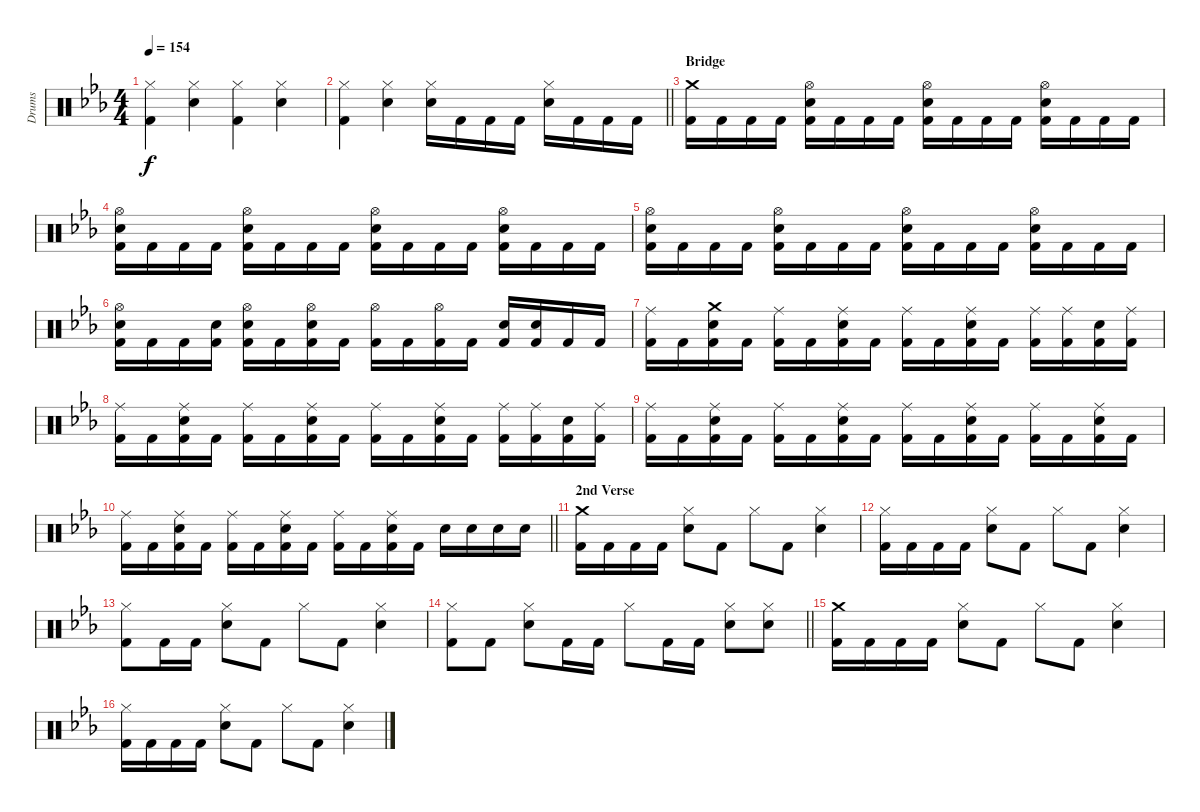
\track ("Drums" "Drums") {instrument percussion}
\staff {score}
\articulation defaults
\ts (4 4)
\tempo 154
\clef neutral
\ks cminor
("Hi-Hat (closed)" "Kick (hit) 2").4{dy f} ("Hi-Hat (closed)" "Snare (hit) 2").4 ("Hi-Hat (closed)" "Kick (hit) 2").4 ("Hi-Hat (closed)" "Snare (hit) 2").4 |
\barLineRight lightlight
("Hi-Hat (closed)" "Kick (hit) 2").4 ("Hi-Hat (closed)" "Snare (hit) 2").4 ("Hi-Hat (closed)" "Snare (hit) 2").16 "Kick (hit) 2".16 "Kick (hit) 2".16 "Kick (hit) 2".16 ("Hi-Hat (closed)" "Snare (hit) 2").16 "Kick (hit) 2".16 "Kick (hit) 2".16 "Kick (hit) 2".16 |
\section ("" "Bridge")
("Crash medium (hit)" "Kick (hit) 2").16 "Kick (hit) 2".16 "Kick (hit) 2".16 "Kick (hit) 2".16 ("Hi-Hat (open)" "Snare (hit) 2" "Kick (hit) 2").16 "Kick (hit) 2".16 "Kick (hit) 2".16 "Kick (hit) 2".16 ("Hi-Hat (open)" "Snare (hit) 2" "Kick (hit) 2").16 "Kick (hit) 2".16 "Kick (hit) 2".16 "Kick (hit) 2".16 ("Hi-Hat (open)" "Snare (hit) 2" "Kick (hit) 2").16 "Kick (hit) 2".16 "Kick (hit) 2".16 "Kick (hit) 2".16 |
("Hi-Hat (open)" "Snare (hit) 2" "Kick (hit) 2").16 "Kick (hit) 2".16 "Kick (hit) 2".16 "Kick (hit) 2".16 ("Hi-Hat (open)" "Snare (hit) 2" "Kick (hit) 2").16 "Kick (hit) 2".16 "Kick (hit) 2".16 "Kick (hit) 2".16 ("Hi-Hat (open)" "Snare (hit) 2" "Kick (hit) 2").16 "Kick (hit) 2".16 "Kick (hit) 2".16 "Kick (hit) 2".16 ("Hi-Hat (open)" "Snare (hit) 2" "Kick (hit) 2").16 "Kick (hit) 2".16 "Kick (hit) 2".16 "Kick (hit) 2".16 |
("Hi-Hat (open)" "Snare (hit) 2" "Kick (hit) 2").16 "Kick (hit) 2".16 "Kick (hit) 2".16 "Kick (hit) 2".16 ("Hi-Hat (open)" "Snare (hit) 2" "Kick (hit) 2").16 "Kick (hit) 2".16 "Kick (hit) 2".16 "Kick (hit) 2".16 ("Hi-Hat (open)" "Snare (hit) 2" "Kick (hit) 2").16 "Kick (hit) 2".16 "Kick (hit) 2".16 "Kick (hit) 2".16 ("Hi-Hat (open)" "Snare (hit) 2" "Kick (hit) 2").16 "Kick (hit) 2".16 "Kick (hit) 2".16 "Kick (hit) 2".16 |
("Hi-Hat (open)" "Snare (hit) 2" "Kick (hit) 2").16 "Kick (hit) 2".16 "Kick (hit) 2".16 ("Snare (hit) 2" "Kick (hit) 2").16 ("Hi-Hat (open)" "Snare (hit) 2" "Kick (hit) 2").16 "Kick (hit) 2".16 ("Hi-Hat (open)" "Snare (hit) 2" "Kick (hit) 2").16 "Kick (hit) 2".16 ("Hi-Hat (open)" "Kick (hit) 2").16 "Kick (hit) 2".16 ("Hi-Hat (open)" "Kick (hit) 2").16 "Kick (hit) 2".16 ("Snare (hit) 2" "Kick (hit) 2").16 ("Snare (hit) 2" "Kick (hit) 2").16 "Kick (hit) 2".16 "Kick (hit) 2".16 |
("Ride (middle)" "Kick (hit) 2").16 "Kick (hit) 2".16 ("Crash medium (hit)" "Snare (hit) 2" "Kick (hit) 2").16 "Kick (hit) 2".16 ("Ride (middle)" "Kick (hit) 2").16 "Kick (hit) 2".16 ("Ride (middle)" "Snare (hit) 2" "Kick (hit) 2").16 "Kick (hit) 2".16 ("Ride (middle)" "Kick (hit) 2").16 "Kick (hit) 2".16 ("Ride (middle)" "Snare (hit) 2" "Kick (hit) 2").16 "Kick (hit) 2".16 ("Ride (middle)" "Kick (hit) 2").16 ("Ride (middle)" "Kick (hit) 2").16 ("Snare (hit) 2" "Kick (hit) 2").16 ("Ride (middle)" "Kick (hit) 2").16 |
("Ride (middle)" "Kick (hit) 2").16 "Kick (hit) 2".16 ("Ride (middle)" "Snare (hit) 2" "Kick (hit) 2").16 "Kick (hit) 2".16 ("Ride (middle)" "Kick (hit) 2").16 "Kick (hit) 2".16 ("Ride (middle)" "Snare (hit) 2" "Kick (hit) 2").16 "Kick (hit) 2".16 ("Ride (middle)" "Kick (hit) 2").16 "Kick (hit) 2".16 ("Ride (middle)" "Snare (hit) 2" "Kick (hit) 2").16 "Kick (hit) 2".16 ("Ride (middle)" "Kick (hit) 2").16 ("Ride (middle)" "Kick (hit) 2").16 ("Snare (hit) 2" "Kick (hit) 2").16 ("Ride (middle)" "Kick (hit) 2").16 |
("Ride (middle)" "Kick (hit) 2").16 "Kick (hit) 2".16 ("Ride (middle)" "Snare (hit) 2" "Kick (hit) 2").16 "Kick (hit) 2".16 ("Ride (middle)" "Kick (hit) 2").16 "Kick (hit) 2".16 ("Ride (middle)" "Snare (hit) 2" "Kick (hit) 2").16 "Kick (hit) 2".16 ("Ride (middle)" "Kick (hit) 2").16 "Kick (hit) 2".16 ("Ride (middle)" "Snare (hit) 2" "Kick (hit) 2").16 "Kick (hit) 2".16 ("Ride (middle)" "Kick (hit) 2").16 "Kick (hit) 2".16 ("Ride (middle)" "Snare (hit) 2" "Kick (hit) 2").16 "Kick (hit) 2".16 |
\barLineRight lightlight
("Ride (middle)" "Kick (hit) 2").16 "Kick (hit) 2".16 ("Ride (middle)" "Snare (hit) 2" "Kick (hit) 2").16 "Kick (hit) 2".16 ("Ride (middle)" "Kick (hit) 2").16 "Kick (hit) 2".16 ("Ride (middle)" "Snare (hit) 2" "Kick (hit) 2").16 "Kick (hit) 2".16 ("Ride (middle)" "Kick (hit) 2").16 "Kick (hit) 2".16 ("Ride (middle)" "Snare (hit) 2" "Kick (hit) 2").16 "Kick (hit) 2".16 "Snare (hit) 2".16 "Snare (hit) 2".16 "Snare (hit) 2".16 "Snare (hit) 2".16 |
\section ("" "2nd Verse")
("Crash medium (hit)" "Kick (hit) 2").16 "Kick (hit) 2".16 "Kick (hit) 2".16 "Kick (hit) 2".16 ("Hi-Hat (closed)" "Snare (hit) 2").8 "Kick (hit) 2".8 "Hi-Hat (closed)".8 "Kick (hit) 2".8 ("Hi-Hat (closed)" "Snare (hit) 2").4 |
("Hi-Hat (closed)" "Kick (hit) 2").16 "Kick (hit) 2".16 "Kick (hit) 2".16 "Kick (hit) 2".16 ("Hi-Hat (closed)" "Snare (hit) 2").8 "Kick (hit) 2".8 "Hi-Hat (closed)".8 "Kick (hit) 2".8 ("Hi-Hat (closed)" "Snare (hit) 2").4 |
("Hi-Hat (closed)" "Kick (hit) 2").8 "Kick (hit) 2".16 "Kick (hit) 2".16 ("Hi-Hat (closed)" "Snare (hit) 2").8 "Kick (hit) 2".8 "Hi-Hat (closed)".8 "Kick (hit) 2".8 ("Hi-Hat (closed)" "Snare (hit) 2").4 |
\barLineRight lightlight
("Hi-Hat (closed)" "Kick (hit) 2").8 "Kick (hit) 2".8 ("Hi-Hat (closed)" "Snare (hit) 2").8 "Kick (hit) 2".16 "Kick (hit) 2".16 "Hi-Hat (closed)".8 "Kick (hit) 2".16 "Kick (hit) 2".16 ("Hi-Hat (closed)" "Snare (hit) 2").8 ("Hi-Hat (closed)" "Snare (hit) 2").8 |
("Crash medium (hit)" "Kick (hit) 2").16 "Kick (hit) 2".16 "Kick (hit) 2".16 "Kick (hit) 2".16 ("Hi-Hat (closed)" "Snare (hit) 2").8 "Kick (hit) 2".8 "Hi-Hat (closed)".8 "Kick (hit) 2".8 ("Hi-Hat (closed)" "Snare (hit) 2").4 |
("Hi-Hat (closed)" "Kick (hit) 2").16 "Kick (hit) 2".16 "Kick (hit) 2".16 "Kick (hit) 2".16 ("Hi-Hat (closed)" "Snare (hit) 2").8 "Kick (hit) 2".8 "Hi-Hat (closed)".8 "Kick (hit) 2".8 ("Hi-Hat (closed)" "Snare (hit) 2").4
